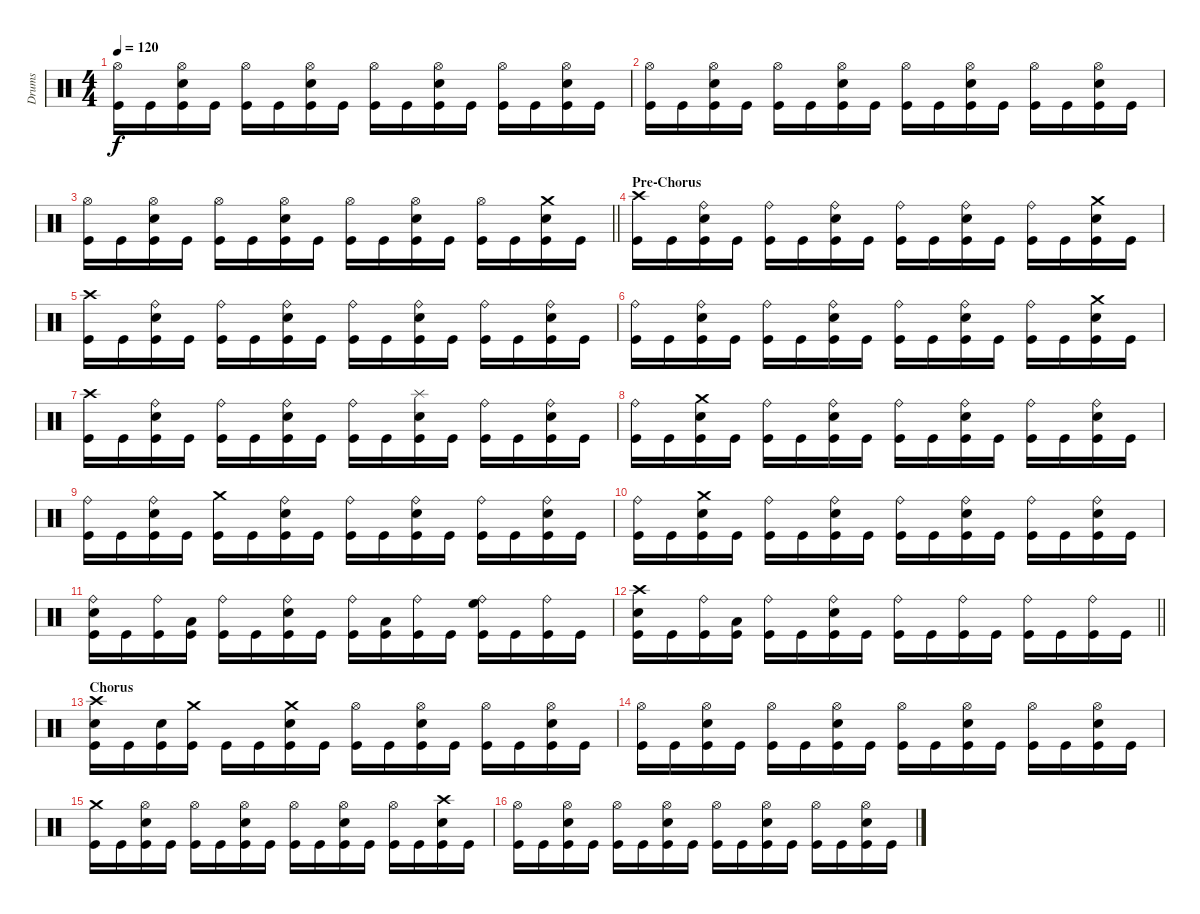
\track ("Drums" "Drums") {instrument percussion}
\staff {score}
\articulation defaults
\ts (4 4)
\tempo 120
\clef neutral
\ks c
("Hi-Hat (open)" "Kick (hit)").16{dy f} "Kick (hit)".16 ("Hi-Hat (open)" "Electric Snare (hit)" "Kick (hit)").16 "Kick (hit)".16 ("Hi-Hat (open)" "Kick (hit)").16 "Kick (hit)".16 ("Hi-Hat (open)" "Electric Snare (hit)" "Kick (hit)").16 "Kick (hit)".16 ("Hi-Hat (open)" "Kick (hit)").16 "Kick (hit)".16 ("Hi-Hat (open)" "Electric Snare (hit)" "Kick (hit)").16 "Kick (hit)".16 ("Hi-Hat (open)" "Kick (hit)").16 "Kick (hit)".16 ("Hi-Hat (open)" "Electric Snare (hit)" "Kick (hit)").16 "Kick (hit)".16 |
("Hi-Hat (open)" "Kick (hit)").16 "Kick (hit)".16 ("Hi-Hat (open)" "Electric Snare (hit)" "Kick (hit)").16 "Kick (hit)".16 ("Hi-Hat (open)" "Kick (hit)").16 "Kick (hit)".16 ("Hi-Hat (open)" "Electric Snare (hit)" "Kick (hit)").16 "Kick (hit)".16 ("Hi-Hat (open)" "Kick (hit)").16 "Kick (hit)".16 ("Hi-Hat (open)" "Electric Snare (hit)" "Kick (hit)").16 "Kick (hit)".16 ("Hi-Hat (open)" "Kick (hit)").16 "Kick (hit)".16 ("Hi-Hat (open)" "Electric Snare (hit)" "Kick (hit)").16 "Kick (hit)".16 |
\barLineRight lightlight
("Hi-Hat (open)" "Kick (hit)").16 "Kick (hit)".16 ("Hi-Hat (open)" "Electric Snare (hit)" "Kick (hit)").16 "Kick (hit)".16 ("Hi-Hat (open)" "Kick (hit)").16 "Kick (hit)".16 ("Hi-Hat (open)" "Electric Snare (hit)" "Kick (hit)").16 "Kick (hit)".16 ("Hi-Hat (open)" "Kick (hit)").16 "Kick (hit)".16 ("Hi-Hat (open)" "Electric Snare (hit)" "Kick (hit)").16 "Kick (hit)".16 ("Hi-Hat (open)" "Kick (hit)").16 "Kick (hit)".16 ("Crash medium (hit)" "Electric Snare (hit)" "Kick (hit)").16 "Kick (hit)".16 |
\section ("" "Pre-Chorus")
("Crash high (hit)" "Kick (hit)").16 "Kick (hit)".16 ("Ride (bell)" "Electric Snare (hit)" "Kick (hit)").16 "Kick (hit)".16 ("Ride (bell)" "Kick (hit)").16 "Kick (hit)".16 ("Ride (bell)" "Electric Snare (hit)" "Kick (hit)").16 "Kick (hit)".16 ("Ride (bell)" "Kick (hit)").16 "Kick (hit)".16 ("Ride (bell)" "Electric Snare (hit)" "Kick (hit)").16 "Kick (hit)".16 ("Ride (bell)" "Kick (hit)").16 "Kick (hit)".16 ("Crash medium (hit)" "Electric Snare (hit)" "Kick (hit)").16 "Kick (hit)".16 |
("Crash high (hit)" "Kick (hit)").16 "Kick (hit)".16 ("Ride (bell)" "Electric Snare (hit)" "Kick (hit)").16 "Kick (hit)".16 ("Ride (bell)" "Kick (hit)").16 "Kick (hit)".16 ("Ride (bell)" "Electric Snare (hit)" "Kick (hit)").16 "Kick (hit)".16 ("Ride (bell)" "Kick (hit)").16 "Kick (hit)".16 ("Ride (bell)" "Electric Snare (hit)" "Kick (hit)").16 "Kick (hit)".16 ("Ride (bell)" "Kick (hit)").16 "Kick (hit)".16 ("Ride (bell)" "Electric Snare (hit)" "Kick (hit)").16 "Kick (hit)".16 |
("Ride (bell)" "Kick (hit)").16 "Kick (hit)".16 ("Ride (bell)" "Electric Snare (hit)" "Kick (hit)").16 "Kick (hit)".16 ("Ride (bell)" "Kick (hit)").16 "Kick (hit)".16 ("Ride (bell)" "Electric Snare (hit)" "Kick (hit)").16 "Kick (hit)".16 ("Ride (bell)" "Kick (hit)").16 "Kick (hit)".16 ("Ride (bell)" "Electric Snare (hit)" "Kick (hit)").16 "Kick (hit)".16 ("Ride (bell)" "Kick (hit)").16 "Kick (hit)".16 ("Crash medium (hit)" "Electric Snare (hit)" "Kick (hit)").16 "Kick (hit)".16 |
("Crash high (hit)" "Kick (hit)").16 "Kick (hit)".16 ("Ride (bell)" "Electric Snare (hit)" "Kick (hit)").16 "Kick (hit)".16 ("Ride (bell)" "Kick (hit)").16 "Kick (hit)".16 ("Ride (bell)" "Electric Snare (hit)" "Kick (hit)").16 "Kick (hit)".16 ("Ride (bell)" "Kick (hit)").16 "Kick (hit)".16 ("Splash (hit)" "Electric Snare (hit)" "Kick (hit)").16 "Kick (hit)".16 ("Ride (bell)" "Kick (hit)").16 "Kick (hit)".16 ("Ride (bell)" "Electric Snare (hit)" "Kick (hit)").16 "Kick (hit)".16 |
("Ride (bell)" "Kick (hit)").16 "Kick (hit)".16 ("Crash medium (hit)" "Electric Snare (hit)" "Kick (hit)").16 "Kick (hit)".16 ("Ride (bell)" "Kick (hit)").16 "Kick (hit)".16 ("Ride (bell)" "Electric Snare (hit)" "Kick (hit)").16 "Kick (hit)".16 ("Ride (bell)" "Kick (hit)").16 "Kick (hit)".16 ("Ride (bell)" "Electric Snare (hit)" "Kick (hit)").16 "Kick (hit)".16 ("Ride (bell)" "Kick (hit)").16 "Kick (hit)".16 ("Ride (bell)" "Electric Snare (hit)" "Kick (hit)").16 "Kick (hit)".16 |
("Ride (bell)" "Kick (hit)").16 "Kick (hit)".16 ("Ride (bell)" "Electric Snare (hit)" "Kick (hit)").16 "Kick (hit)".16 ("Crash medium (hit)" "Kick (hit)").16 "Kick (hit)".16 ("Ride (bell)" "Electric Snare (hit)" "Kick (hit)").16 "Kick (hit)".16 ("Ride (bell)" "Kick (hit)").16 "Kick (hit)".16 ("Ride (bell)" "Electric Snare (hit)" "Kick (hit)").16 "Kick (hit)".16 ("Ride (bell)" "Kick (hit)").16 "Kick (hit)".16 ("Ride (bell)" "Electric Snare (hit)" "Kick (hit)").16 "Kick (hit)".16 |
("Ride (bell)" "Kick (hit)").16 "Kick (hit)".16 ("Crash medium (hit)" "Electric Snare (hit)" "Kick (hit)").16 "Kick (hit)".16 ("Ride (bell)" "Kick (hit)").16 "Kick (hit)".16 ("Ride (bell)" "Electric Snare (hit)" "Kick (hit)").16 "Kick (hit)".16 ("Ride (bell)" "Kick (hit)").16 "Kick (hit)".16 ("Ride (bell)" "Electric Snare (hit)" "Kick (hit)").16 "Kick (hit)".16 ("Ride (bell)" "Kick (hit)").16 "Kick (hit)".16 ("Ride (bell)" "Electric Snare (hit)" "Kick (hit)").16 "Kick (hit)".16 |
("Ride (bell)" "Electric Snare (hit)" "Kick (hit)").16 "Kick (hit)".16 ("Ride (bell)" "Kick (hit)").16 ("Low Tom (hit)" "Kick (hit)").16 ("Ride (bell)" "Kick (hit)").16 "Kick (hit)".16 ("Ride (bell)" "Electric Snare (hit)" "Kick (hit)").16 "Kick (hit)".16 ("Ride (bell)" "Kick (hit)").16 ("Low Tom (hit)" "Kick (hit)").16 ("Ride (bell)" "Kick (hit)").16 "Kick (hit)".16 ("Ride (bell)" "High Floor Tom (hit)" "Kick (hit)").16 "Kick (hit)".16 ("Ride (bell)" "Kick (hit)").16 "Kick (hit)".16 |
\barLineRight lightlight
("Crash high (hit)" "Electric Snare (hit)" "Kick (hit)").16 "Kick (hit)".16 ("Ride (bell)" "Kick (hit)").16 ("Low Tom (hit)" "Kick (hit)").16 ("Ride (bell)" "Kick (hit)").16 "Kick (hit)".16 ("Ride (bell)" "Electric Snare (hit)" "Kick (hit)").16 "Kick (hit)".16 ("Ride (bell)" "Kick (hit)").16 "Kick (hit)".16 ("Ride (bell)" "Kick (hit)").16 "Kick (hit)".16 ("Ride (bell)" "Kick (hit)").16 "Kick (hit)".16 ("Ride (bell)" "Kick (hit)").16 "Kick (hit)".16 |
\section ("" "Chorus")
("Crash high (hit)" "Electric Snare (hit)" "Kick (hit)").16 "Kick (hit)".16 ("Electric Snare (hit)" "Kick (hit)").16 ("Crash medium (hit)" "Kick (hit)").16 "Kick (hit)".16 "Kick (hit)".16 ("Crash medium (hit)" "Electric Snare (hit)" "Kick (hit)").16 "Kick (hit)".16 ("Hi-Hat (open)" "Kick (hit)").16 "Kick (hit)".16 ("Hi-Hat (open)" "Electric Snare (hit)" "Kick (hit)").16 "Kick (hit)".16 ("Hi-Hat (open)" "Kick (hit)").16 "Kick (hit)".16 ("Hi-Hat (open)" "Electric Snare (hit)" "Kick (hit)").16 "Kick (hit)".16 |
("Hi-Hat (open)" "Kick (hit)").16 "Kick (hit)".16 ("Hi-Hat (open)" "Electric Snare (hit)" "Kick (hit)").16 "Kick (hit)".16 ("Hi-Hat (open)" "Kick (hit)").16 "Kick (hit)".16 ("Hi-Hat (open)" "Electric Snare (hit)" "Kick (hit)").16 "Kick (hit)".16 ("Hi-Hat (open)" "Kick (hit)").16 "Kick (hit)".16 ("Hi-Hat (open)" "Electric Snare (hit)" "Kick (hit)").16 "Kick (hit)".16 ("Hi-Hat (open)" "Kick (hit)").16 "Kick (hit)".16 ("Hi-Hat (open)" "Electric Snare (hit)" "Kick (hit)").16 "Kick (hit)".16 |
("Crash medium (hit)" "Kick (hit)").16 "Kick (hit)".16 ("Hi-Hat (open)" "Electric Snare (hit)" "Kick (hit)").16 "Kick (hit)".16 ("Hi-Hat (open)" "Kick (hit)").16 "Kick (hit)".16 ("Hi-Hat (open)" "Electric Snare (hit)" "Kick (hit)").16 "Kick (hit)".16 ("Hi-Hat (open)" "Kick (hit)").16 "Kick (hit)".16 ("Hi-Hat (open)" "Electric Snare (hit)" "Kick (hit)").16 "Kick (hit)".16 ("Hi-Hat (open)" "Kick (hit)").16 "Kick (hit)".16 ("Crash high (hit)" "Electric Snare (hit)" "Kick (hit)").16 "Kick (hit)".16 |
("Hi-Hat (open)" "Kick (hit)").16 "Kick (hit)".16 ("Hi-Hat (open)" "Electric Snare (hit)" "Kick (hit)").16 "Kick (hit)".16 ("Hi-Hat (open)" "Kick (hit)").16 "Kick (hit)".16 ("Hi-Hat (open)" "Electric Snare (hit)" "Kick (hit)").16 "Kick (hit)".16 ("Hi-Hat (open)" "Kick (hit)").16 "Kick (hit)".16 ("Hi-Hat (open)" "Electric Snare (hit)" "Kick (hit)").16 "Kick (hit)".16 ("Hi-Hat (open)" "Kick (hit)").16 "Kick (hit)".16 ("Hi-Hat (open)" "Electric Snare (hit)" "Kick (hit)").16 "Kick (hit)".16
